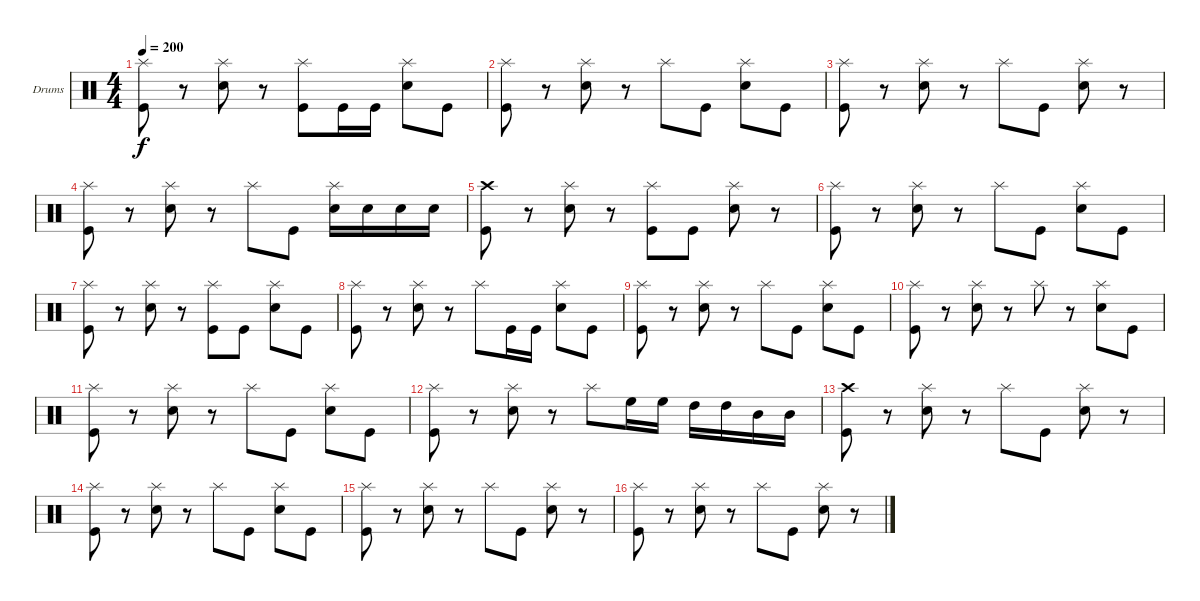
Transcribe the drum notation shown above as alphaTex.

\bracketExtendMode groupsimilarinstruments
\firstSystemTrackNameOrientation horizontal
\otherSystemsTrackNameOrientation horizontal
\track ("Drumkit" "Drums") {instrument percussion}
\staff {score}
\articulation defaults
\ts (4 4)
\tempo 200
\clef neutral
\ks c
("Splash (hit)" "Kick (hit)").8{dy f} r.8 ("Splash (hit)" "Snare (hit) 2").8 r.8 ("Splash (hit)" "Kick (hit)").8 "Kick (hit)".16 "Kick (hit)".16 ("Splash (hit)" "Snare (hit) 2").8 "Kick (hit)".8 |
("Splash (hit)" "Kick (hit)").8 r.8 ("Splash (hit)" "Snare (hit) 2").8 r.8 "Splash (hit)".8 "Kick (hit)".8 ("Splash (hit)" "Snare (hit) 2").8 "Kick (hit)".8 |
("Splash (hit)" "Kick (hit)").8 r.8 ("Splash (hit)" "Snare (hit) 2").8 r.8 "Splash (hit)".8 "Kick (hit)".8 ("Splash (hit)" "Snare (hit) 2").8 r.8 |
("Splash (hit)" "Kick (hit)").8 r.8 ("Splash (hit)" "Snare (hit) 2").8 r.8 "Splash (hit)".8 "Kick (hit)".8 ("Splash (hit)" "Snare (hit) 2").16 "Snare (hit) 2".16 "Snare (hit) 2".16 "Snare (hit) 2".16 |
("Crash high (hit)" "Kick (hit)").8 r.8 ("Splash (hit)" "Snare (hit) 2").8 r.8 ("Splash (hit)" "Kick (hit)").8 "Kick (hit)".8 ("Splash (hit)" "Snare (hit) 2").8 r.8 |
("Splash (hit)" "Kick (hit)").8 r.8 ("Splash (hit)" "Snare (hit) 2").8 r.8 "Splash (hit)".8 "Kick (hit)".8 ("Splash (hit)" "Snare (hit) 2").8 "Kick (hit)".8 |
("Splash (hit)" "Kick (hit)").8 r.8 ("Splash (hit)" "Snare (hit) 2").8 r.8 ("Splash (hit)" "Kick (hit)").8 "Kick (hit)".8 ("Splash (hit)" "Snare (hit) 2").8 "Kick (hit)".8 |
("Splash (hit)" "Kick (hit)").8 r.8 ("Splash (hit)" "Snare (hit) 2").8 r.8 "Splash (hit)".8 "Kick (hit)".16 "Kick (hit)".16 ("Splash (hit)" "Snare (hit) 2").8 "Kick (hit)".8 |
("Splash (hit)" "Kick (hit)").8 r.8 ("Splash (hit)" "Snare (hit) 2").8 r.8 "Splash (hit)".8 "Kick (hit)".8 ("Splash (hit)" "Snare (hit) 2").8 "Kick (hit)".8 |
("Splash (hit)" "Kick (hit)").8 r.8 ("Splash (hit)" "Snare (hit) 2").8 r.8 "Splash (hit)".8 r.8 ("Splash (hit)" "Snare (hit) 2").8 "Kick (hit)".8 |
("Splash (hit)" "Kick (hit)").8 r.8 ("Splash (hit)" "Snare (hit) 2").8 r.8 "Splash (hit)".8 "Kick (hit)".8 ("Splash (hit)" "Snare (hit) 2").8 "Kick (hit)".8 |
("Splash (hit)" "Kick (hit)").8 r.8 ("Splash (hit)" "Snare (hit) 2").8 r.8 "Splash (hit)".8 "High Floor Tom (hit)".16 "High Floor Tom (hit)".16 "High Tom (hit)".16 "High Tom (hit)".16 "Mid Tom (hit)".16 "Mid Tom (hit)".16 |
("Crash high (hit)" "Kick (hit)").8 r.8 ("Splash (hit)" "Snare (hit) 2").8 r.8 "Splash (hit)".8 "Kick (hit)".8 ("Splash (hit)" "Snare (hit) 2").8 r.8 |
("Splash (hit)" "Kick (hit)").8 r.8 ("Splash (hit)" "Snare (hit) 2").8 r.8 "Splash (hit)".8 "Kick (hit)".8 ("Splash (hit)" "Snare (hit) 2").8 "Kick (hit)".8 |
("Splash (hit)" "Kick (hit)").8 r.8 ("Splash (hit)" "Snare (hit) 2").8 r.8 "Splash (hit)".8 "Kick (hit)".8 ("Splash (hit)" "Snare (hit) 2").8 r.8 |
("Splash (hit)" "Kick (hit)").8 r.8 ("Splash (hit)" "Snare (hit) 2").8 r.8 "Splash (hit)".8 "Kick (hit)".8 ("Splash (hit)" "Snare (hit) 2").8 r.8
